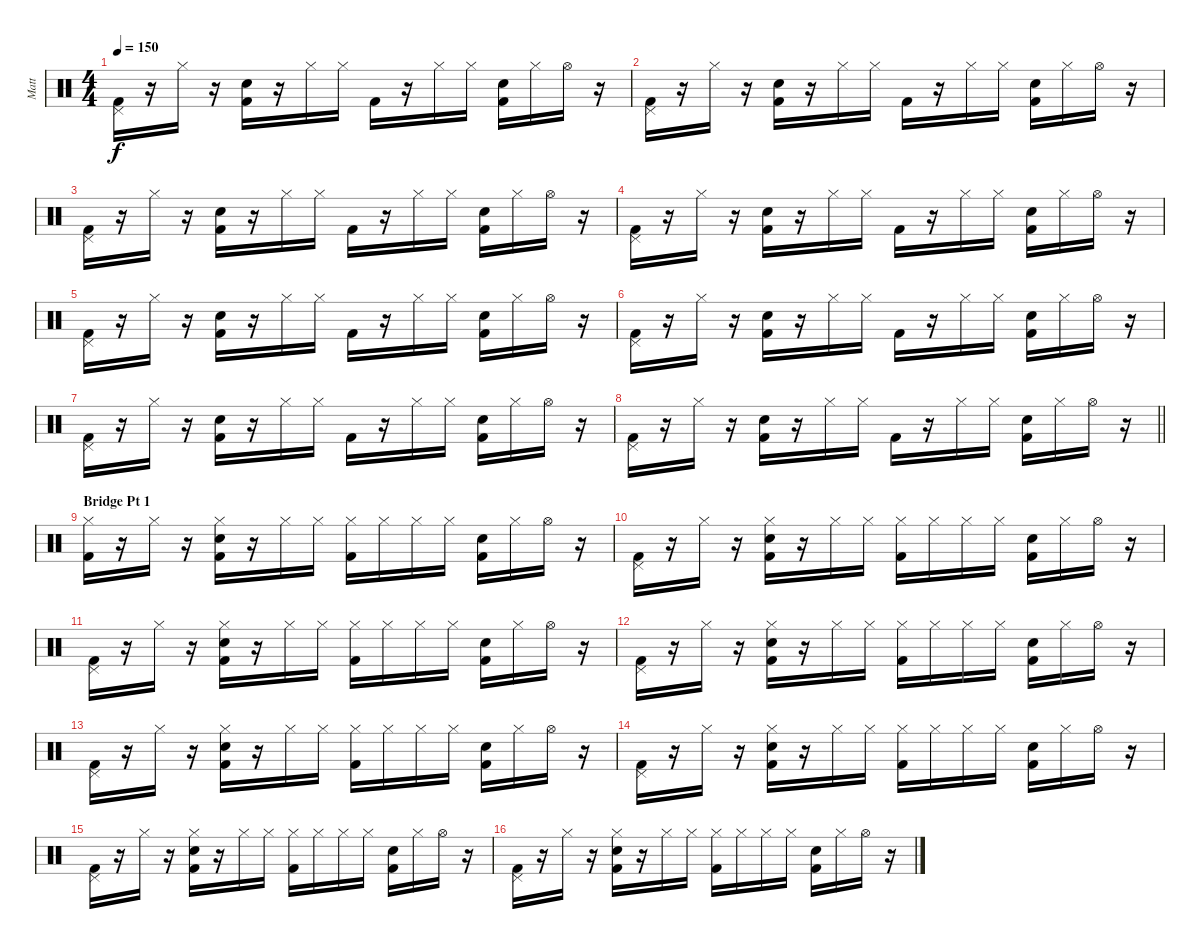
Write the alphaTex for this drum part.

\track ("Matt" "Matt") {instrument percussion}
\staff {score}
\articulation defaults
\ts (4 4)
\tempo 150
\clef neutral
\ks c
("Pedal Hi-Hat (hit)" "Kick (hit) 2").16{dy f} r.16 "Hi-Hat (closed)".16 r.16 ("Snare (hit) 2" "Kick (hit) 2").16 r.16 "Hi-Hat (closed)".16 "Hi-Hat (closed)".16 "Kick (hit) 2".16 r.16 "Hi-Hat (closed)".16 "Hi-Hat (closed)".16 ("Snare (hit) 2" "Kick (hit) 2").16 "Hi-Hat (closed)".16 "Hi-Hat (open)".16 r.16 |
("Pedal Hi-Hat (hit)" "Kick (hit) 2").16 r.16 "Hi-Hat (closed)".16 r.16 ("Snare (hit) 2" "Kick (hit) 2").16 r.16 "Hi-Hat (closed)".16 "Hi-Hat (closed)".16 "Kick (hit) 2".16 r.16 "Hi-Hat (closed)".16 "Hi-Hat (closed)".16 ("Snare (hit) 2" "Kick (hit) 2").16 "Hi-Hat (closed)".16 "Hi-Hat (open)".16 r.16 |
("Pedal Hi-Hat (hit)" "Kick (hit) 2").16 r.16 "Hi-Hat (closed)".16 r.16 ("Snare (hit) 2" "Kick (hit) 2").16 r.16 "Hi-Hat (closed)".16 "Hi-Hat (closed)".16 "Kick (hit) 2".16 r.16 "Hi-Hat (closed)".16 "Hi-Hat (closed)".16 ("Snare (hit) 2" "Kick (hit) 2").16 "Hi-Hat (closed)".16 "Hi-Hat (open)".16 r.16 |
("Pedal Hi-Hat (hit)" "Kick (hit) 2").16 r.16 "Hi-Hat (closed)".16 r.16 ("Snare (hit) 2" "Kick (hit) 2").16 r.16 "Hi-Hat (closed)".16 "Hi-Hat (closed)".16 "Kick (hit) 2".16 r.16 "Hi-Hat (closed)".16 "Hi-Hat (closed)".16 ("Snare (hit) 2" "Kick (hit) 2").16 "Hi-Hat (closed)".16 "Hi-Hat (open)".16 r.16 |
("Pedal Hi-Hat (hit)" "Kick (hit) 2").16 r.16 "Hi-Hat (closed)".16 r.16 ("Snare (hit) 2" "Kick (hit) 2").16 r.16 "Hi-Hat (closed)".16 "Hi-Hat (closed)".16 "Kick (hit) 2".16 r.16 "Hi-Hat (closed)".16 "Hi-Hat (closed)".16 ("Snare (hit) 2" "Kick (hit) 2").16 "Hi-Hat (closed)".16 "Hi-Hat (open)".16 r.16 |
("Pedal Hi-Hat (hit)" "Kick (hit) 2").16 r.16 "Hi-Hat (closed)".16 r.16 ("Snare (hit) 2" "Kick (hit) 2").16 r.16 "Hi-Hat (closed)".16 "Hi-Hat (closed)".16 "Kick (hit) 2".16 r.16 "Hi-Hat (closed)".16 "Hi-Hat (closed)".16 ("Snare (hit) 2" "Kick (hit) 2").16 "Hi-Hat (closed)".16 "Hi-Hat (open)".16 r.16 |
("Pedal Hi-Hat (hit)" "Kick (hit) 2").16 r.16 "Hi-Hat (closed)".16 r.16 ("Snare (hit) 2" "Kick (hit) 2").16 r.16 "Hi-Hat (closed)".16 "Hi-Hat (closed)".16 "Kick (hit) 2".16 r.16 "Hi-Hat (closed)".16 "Hi-Hat (closed)".16 ("Snare (hit) 2" "Kick (hit) 2").16 "Hi-Hat (closed)".16 "Hi-Hat (open)".16 r.16 |
\barLineRight lightlight
("Pedal Hi-Hat (hit)" "Kick (hit) 2").16 r.16 "Hi-Hat (closed)".16 r.16 ("Snare (hit) 2" "Kick (hit) 2").16 r.16 "Hi-Hat (closed)".16 "Hi-Hat (closed)".16 "Kick (hit) 2".16 r.16 "Hi-Hat (closed)".16 "Hi-Hat (closed)".16 ("Snare (hit) 2" "Kick (hit) 2").16 "Hi-Hat (closed)".16 "Hi-Hat (open)".16 r.16 |
\section ("" "Bridge Pt 1")
("Hi-Hat (closed)" "Kick (hit) 2").16 r.16 "Hi-Hat (closed)".16 r.16 ("Hi-Hat (closed)" "Snare (hit) 2" "Kick (hit) 2").16 r.16 "Hi-Hat (closed)".16 "Hi-Hat (closed)".16 ("Hi-Hat (closed)" "Kick (hit) 2").16 "Hi-Hat (closed)".16 "Hi-Hat (closed)".16 "Hi-Hat (closed)".16 ("Snare (hit) 2" "Kick (hit) 2").16 "Hi-Hat (closed)".16 "Hi-Hat (open)".16 r.16 |
("Pedal Hi-Hat (hit)" "Kick (hit) 2").16 r.16 "Hi-Hat (closed)".16 r.16 ("Hi-Hat (closed)" "Snare (hit) 2" "Kick (hit) 2").16 r.16 "Hi-Hat (closed)".16 "Hi-Hat (closed)".16 ("Hi-Hat (closed)" "Kick (hit) 2").16 "Hi-Hat (closed)".16 "Hi-Hat (closed)".16 "Hi-Hat (closed)".16 ("Snare (hit) 2" "Kick (hit) 2").16 "Hi-Hat (closed)".16 "Hi-Hat (open)".16 r.16 |
("Pedal Hi-Hat (hit)" "Kick (hit) 2").16 r.16 "Hi-Hat (closed)".16 r.16 ("Hi-Hat (closed)" "Snare (hit) 2" "Kick (hit) 2").16 r.16 "Hi-Hat (closed)".16 "Hi-Hat (closed)".16 ("Hi-Hat (closed)" "Kick (hit) 2").16 "Hi-Hat (closed)".16 "Hi-Hat (closed)".16 "Hi-Hat (closed)".16 ("Snare (hit) 2" "Kick (hit) 2").16 "Hi-Hat (closed)".16 "Hi-Hat (open)".16 r.16 |
("Pedal Hi-Hat (hit)" "Kick (hit) 2").16 r.16 "Hi-Hat (closed)".16 r.16 ("Hi-Hat (closed)" "Snare (hit) 2" "Kick (hit) 2").16 r.16 "Hi-Hat (closed)".16 "Hi-Hat (closed)".16 ("Hi-Hat (closed)" "Kick (hit) 2").16 "Hi-Hat (closed)".16 "Hi-Hat (closed)".16 "Hi-Hat (closed)".16 ("Snare (hit) 2" "Kick (hit) 2").16 "Hi-Hat (closed)".16 "Hi-Hat (open)".16 r.16 |
("Pedal Hi-Hat (hit)" "Kick (hit) 2").16 r.16 "Hi-Hat (closed)".16 r.16 ("Hi-Hat (closed)" "Snare (hit) 2" "Kick (hit) 2").16 r.16 "Hi-Hat (closed)".16 "Hi-Hat (closed)".16 ("Hi-Hat (closed)" "Kick (hit) 2").16 "Hi-Hat (closed)".16 "Hi-Hat (closed)".16 "Hi-Hat (closed)".16 ("Snare (hit) 2" "Kick (hit) 2").16 "Hi-Hat (closed)".16 "Hi-Hat (open)".16 r.16 |
("Pedal Hi-Hat (hit)" "Kick (hit) 2").16 r.16 "Hi-Hat (closed)".16 r.16 ("Hi-Hat (closed)" "Snare (hit) 2" "Kick (hit) 2").16 r.16 "Hi-Hat (closed)".16 "Hi-Hat (closed)".16 ("Hi-Hat (closed)" "Kick (hit) 2").16 "Hi-Hat (closed)".16 "Hi-Hat (closed)".16 "Hi-Hat (closed)".16 ("Snare (hit) 2" "Kick (hit) 2").16 "Hi-Hat (closed)".16 "Hi-Hat (open)".16 r.16 |
("Pedal Hi-Hat (hit)" "Kick (hit) 2").16 r.16 "Hi-Hat (closed)".16 r.16 ("Hi-Hat (closed)" "Snare (hit) 2" "Kick (hit) 2").16 r.16 "Hi-Hat (closed)".16 "Hi-Hat (closed)".16 ("Hi-Hat (closed)" "Kick (hit) 2").16 "Hi-Hat (closed)".16 "Hi-Hat (closed)".16 "Hi-Hat (closed)".16 ("Snare (hit) 2" "Kick (hit) 2").16 "Hi-Hat (closed)".16 "Hi-Hat (open)".16 r.16 |
("Pedal Hi-Hat (hit)" "Kick (hit) 2").16 r.16 "Hi-Hat (closed)".16 r.16 ("Hi-Hat (closed)" "Snare (hit) 2" "Kick (hit) 2").16 r.16 "Hi-Hat (closed)".16 "Hi-Hat (closed)".16 ("Hi-Hat (closed)" "Kick (hit) 2").16 "Hi-Hat (closed)".16 "Hi-Hat (closed)".16 "Hi-Hat (closed)".16 ("Snare (hit) 2" "Kick (hit) 2").16 "Hi-Hat (closed)".16 "Hi-Hat (open)".16 r.16
